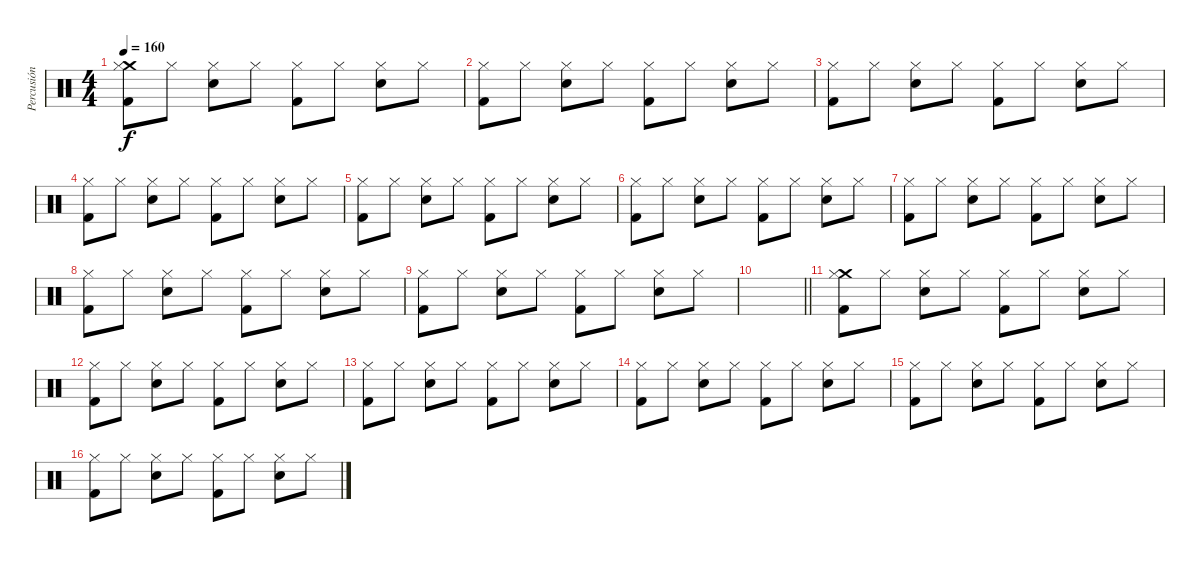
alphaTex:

\track ("Percusión" "Percusión") {instrument percussion}
\staff {score}
\articulation defaults
\ts (4 4)
\tempo 160
\clef neutral
\ks c
("Crash medium (hit)" "Hi-Hat (closed)" "Kick (hit) 2").8{dy f} "Hi-Hat (closed)".8 ("Hi-Hat (closed)" "Snare (hit) 2").8 "Hi-Hat (closed)".8 ("Hi-Hat (closed)" "Kick (hit) 2").8 "Hi-Hat (closed)".8 ("Hi-Hat (closed)" "Snare (hit) 2").8 "Hi-Hat (closed)".8 |
("Hi-Hat (closed)" "Kick (hit) 2").8 "Hi-Hat (closed)".8 ("Hi-Hat (closed)" "Snare (hit) 2").8 "Hi-Hat (closed)".8 ("Hi-Hat (closed)" "Kick (hit) 2").8 "Hi-Hat (closed)".8 ("Hi-Hat (closed)" "Snare (hit) 2").8 "Hi-Hat (closed)".8 |
("Hi-Hat (closed)" "Kick (hit) 2").8 "Hi-Hat (closed)".8 ("Hi-Hat (closed)" "Snare (hit) 2").8 "Hi-Hat (closed)".8 ("Hi-Hat (closed)" "Kick (hit) 2").8 "Hi-Hat (closed)".8 ("Hi-Hat (closed)" "Snare (hit) 2").8 "Hi-Hat (closed)".8 |
("Hi-Hat (closed)" "Kick (hit) 2").8 "Hi-Hat (closed)".8 ("Hi-Hat (closed)" "Snare (hit) 2").8 "Hi-Hat (closed)".8 ("Hi-Hat (closed)" "Kick (hit) 2").8 "Hi-Hat (closed)".8 ("Hi-Hat (closed)" "Snare (hit) 2").8 "Hi-Hat (closed)".8 |
("Hi-Hat (closed)" "Kick (hit) 2").8 "Hi-Hat (closed)".8 ("Hi-Hat (closed)" "Snare (hit) 2").8 "Hi-Hat (closed)".8 ("Hi-Hat (closed)" "Kick (hit) 2").8 "Hi-Hat (closed)".8 ("Hi-Hat (closed)" "Snare (hit) 2").8 "Hi-Hat (closed)".8 |
("Hi-Hat (closed)" "Kick (hit) 2").8 "Hi-Hat (closed)".8 ("Hi-Hat (closed)" "Snare (hit) 2").8 "Hi-Hat (closed)".8 ("Hi-Hat (closed)" "Kick (hit) 2").8 "Hi-Hat (closed)".8 ("Hi-Hat (closed)" "Snare (hit) 2").8 "Hi-Hat (closed)".8 |
("Hi-Hat (closed)" "Kick (hit) 2").8 "Hi-Hat (closed)".8 ("Hi-Hat (closed)" "Snare (hit) 2").8 "Hi-Hat (closed)".8 ("Hi-Hat (closed)" "Kick (hit) 2").8 "Hi-Hat (closed)".8 ("Hi-Hat (closed)" "Snare (hit) 2").8 "Hi-Hat (closed)".8 |
("Hi-Hat (closed)" "Kick (hit) 2").8 "Hi-Hat (closed)".8 ("Hi-Hat (closed)" "Snare (hit) 2").8 "Hi-Hat (closed)".8 ("Hi-Hat (closed)" "Kick (hit) 2").8 "Hi-Hat (closed)".8 ("Hi-Hat (closed)" "Snare (hit) 2").8 "Hi-Hat (closed)".8 |
("Hi-Hat (closed)" "Kick (hit) 2").8 "Hi-Hat (closed)".8 ("Hi-Hat (closed)" "Snare (hit) 2").8 "Hi-Hat (closed)".8 ("Hi-Hat (closed)" "Kick (hit) 2").8 "Hi-Hat (closed)".8 ("Hi-Hat (closed)" "Snare (hit) 2").8 "Hi-Hat (closed)".8 |
\barLineRight lightlight
|
("Crash medium (hit)" "Hi-Hat (closed)" "Kick (hit) 2").8 "Hi-Hat (closed)".8 ("Hi-Hat (closed)" "Snare (hit) 2").8 "Hi-Hat (closed)".8 ("Hi-Hat (closed)" "Kick (hit) 2").8 "Hi-Hat (closed)".8 ("Hi-Hat (closed)" "Snare (hit) 2").8 "Hi-Hat (closed)".8 |
("Hi-Hat (closed)" "Kick (hit) 2").8 "Hi-Hat (closed)".8 ("Hi-Hat (closed)" "Snare (hit) 2").8 "Hi-Hat (closed)".8 ("Hi-Hat (closed)" "Kick (hit) 2").8 "Hi-Hat (closed)".8 ("Hi-Hat (closed)" "Snare (hit) 2").8 "Hi-Hat (closed)".8 |
("Hi-Hat (closed)" "Kick (hit) 2").8 "Hi-Hat (closed)".8 ("Hi-Hat (closed)" "Snare (hit) 2").8 "Hi-Hat (closed)".8 ("Hi-Hat (closed)" "Kick (hit) 2").8 "Hi-Hat (closed)".8 ("Hi-Hat (closed)" "Snare (hit) 2").8 "Hi-Hat (closed)".8 |
("Hi-Hat (closed)" "Kick (hit) 2").8 "Hi-Hat (closed)".8 ("Hi-Hat (closed)" "Snare (hit) 2").8 "Hi-Hat (closed)".8 ("Hi-Hat (closed)" "Kick (hit) 2").8 "Hi-Hat (closed)".8 ("Hi-Hat (closed)" "Snare (hit) 2").8 "Hi-Hat (closed)".8 |
("Hi-Hat (closed)" "Kick (hit) 2").8 "Hi-Hat (closed)".8 ("Hi-Hat (closed)" "Snare (hit) 2").8 "Hi-Hat (closed)".8 ("Hi-Hat (closed)" "Kick (hit) 2").8 "Hi-Hat (closed)".8 ("Hi-Hat (closed)" "Snare (hit) 2").8 "Hi-Hat (closed)".8 |
("Hi-Hat (closed)" "Kick (hit) 2").8 "Hi-Hat (closed)".8 ("Hi-Hat (closed)" "Snare (hit) 2").8 "Hi-Hat (closed)".8 ("Hi-Hat (closed)" "Kick (hit) 2").8 "Hi-Hat (closed)".8 ("Hi-Hat (closed)" "Snare (hit) 2").8 "Hi-Hat (closed)".8
